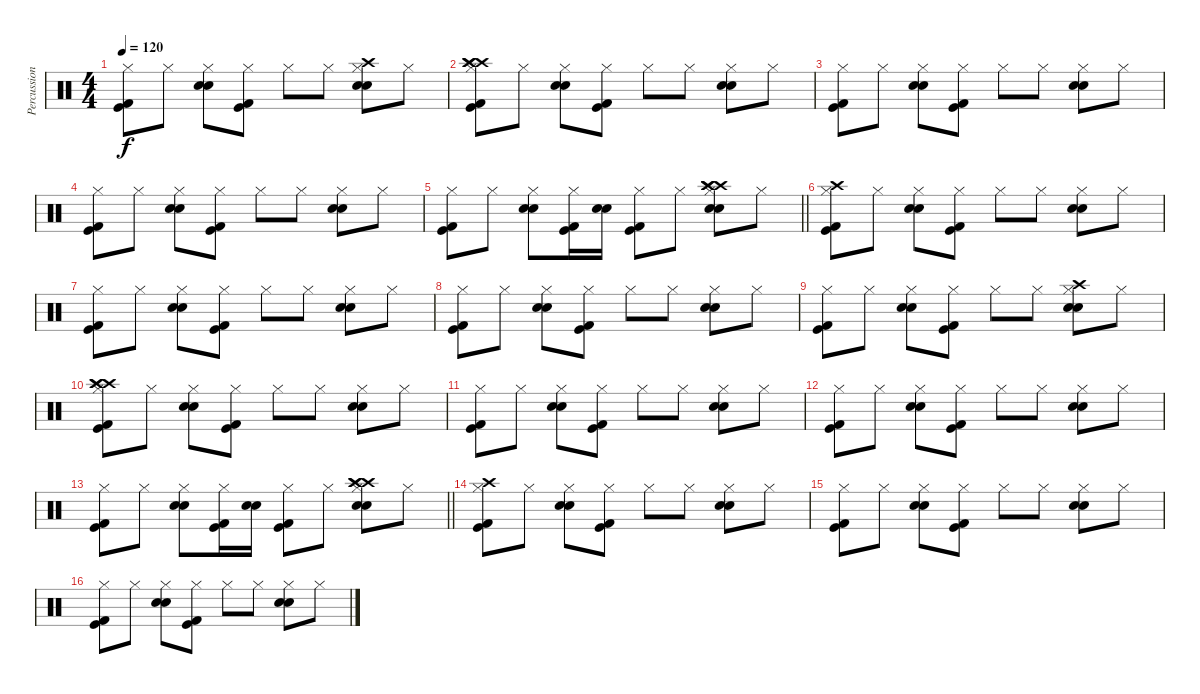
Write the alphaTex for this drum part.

\track ("Percussions" "Percussion") {instrument percussion}
\staff {score}
\articulation defaults
\ts (4 4)
\tempo 120
\clef neutral
\ks c
("Hi-Hat (closed)" "Kick (hit)" "Kick (hit) 2").8{dy f} "Hi-Hat (closed)".8 ("Hi-Hat (closed)" "Electric Snare (hit)" "Electric Snare (hit)").8 ("Hi-Hat (closed)" "Kick (hit)" "Kick (hit) 2").8 "Hi-Hat (closed)".8 "Hi-Hat (closed)".8 ("Hi-Hat (closed)" "Electric Snare (hit)" "Electric Snare (hit)" "Crash high (hit)").8 "Hi-Hat (closed)".8 |
("Crash high (hit)" "Hi-Hat (closed)" "Crash high (hit)" "Kick (hit)" "Kick (hit) 2" "Crash high (hit)").8 "Hi-Hat (closed)".8 ("Hi-Hat (closed)" "Electric Snare (hit)" "Electric Snare (hit)").8 ("Hi-Hat (closed)" "Kick (hit)" "Kick (hit) 2").8 "Hi-Hat (closed)".8 "Hi-Hat (closed)".8 ("Hi-Hat (closed)" "Electric Snare (hit)" "Electric Snare (hit)").8 "Hi-Hat (closed)".8 |
("Hi-Hat (closed)" "Kick (hit)" "Kick (hit) 2").8 "Hi-Hat (closed)".8 ("Hi-Hat (closed)" "Electric Snare (hit)" "Electric Snare (hit)").8 ("Hi-Hat (closed)" "Kick (hit)" "Kick (hit) 2").8 "Hi-Hat (closed)".8 "Hi-Hat (closed)".8 ("Hi-Hat (closed)" "Electric Snare (hit)" "Electric Snare (hit)").8 "Hi-Hat (closed)".8 |
("Hi-Hat (closed)" "Kick (hit)" "Kick (hit) 2").8 "Hi-Hat (closed)".8 ("Hi-Hat (closed)" "Electric Snare (hit)" "Electric Snare (hit)").8 ("Hi-Hat (closed)" "Kick (hit)" "Kick (hit) 2").8 "Hi-Hat (closed)".8 "Hi-Hat (closed)".8 ("Hi-Hat (closed)" "Electric Snare (hit)" "Electric Snare (hit)").8 "Hi-Hat (closed)".8 |
\barLineRight lightlight
("Hi-Hat (closed)" "Kick (hit)" "Kick (hit) 2").8 "Hi-Hat (closed)".8 ("Hi-Hat (closed)" "Electric Snare (hit)" "Electric Snare (hit)").8 ("Hi-Hat (closed)" "Kick (hit)" "Kick (hit) 2").16 ("Electric Snare (hit)" "Electric Snare (hit)").16 ("Hi-Hat (closed)" "Kick (hit)" "Kick (hit) 2").8 "Hi-Hat (closed)".8 ("Crash high (hit)" "Hi-Hat (closed)" "Electric Snare (hit)" "Electric Snare (hit)" "Crash high (hit)" "Crash high (hit)").8 "Hi-Hat (closed)".8 |
("Crash high (hit)" "Hi-Hat (closed)" "Kick (hit)" "Kick (hit) 2").8 "Hi-Hat (closed)".8 ("Hi-Hat (closed)" "Electric Snare (hit)" "Electric Snare (hit)").8 ("Hi-Hat (closed)" "Kick (hit)" "Kick (hit) 2").8 "Hi-Hat (closed)".8 "Hi-Hat (closed)".8 ("Hi-Hat (closed)" "Electric Snare (hit)" "Electric Snare (hit)").8 "Hi-Hat (closed)".8 |
("Hi-Hat (closed)" "Kick (hit)" "Kick (hit) 2").8 "Hi-Hat (closed)".8 ("Hi-Hat (closed)" "Electric Snare (hit)" "Electric Snare (hit)").8 ("Hi-Hat (closed)" "Kick (hit)" "Kick (hit) 2").8 "Hi-Hat (closed)".8 "Hi-Hat (closed)".8 ("Hi-Hat (closed)" "Electric Snare (hit)" "Electric Snare (hit)").8 "Hi-Hat (closed)".8 |
("Hi-Hat (closed)" "Kick (hit)" "Kick (hit) 2").8 "Hi-Hat (closed)".8 ("Hi-Hat (closed)" "Electric Snare (hit)" "Electric Snare (hit)").8 ("Hi-Hat (closed)" "Kick (hit)" "Kick (hit) 2").8 "Hi-Hat (closed)".8 "Hi-Hat (closed)".8 ("Hi-Hat (closed)" "Electric Snare (hit)" "Electric Snare (hit)").8 "Hi-Hat (closed)".8 |
("Hi-Hat (closed)" "Kick (hit)" "Kick (hit) 2").8 "Hi-Hat (closed)".8 ("Hi-Hat (closed)" "Electric Snare (hit)" "Electric Snare (hit)").8 ("Hi-Hat (closed)" "Kick (hit)" "Kick (hit) 2").8 "Hi-Hat (closed)".8 "Hi-Hat (closed)".8 ("Hi-Hat (closed)" "Electric Snare (hit)" "Electric Snare (hit)" "Crash high (hit)").8 "Hi-Hat (closed)".8 |
("Crash high (hit)" "Hi-Hat (closed)" "Crash high (hit)" "Kick (hit)" "Kick (hit) 2" "Crash high (hit)").8 "Hi-Hat (closed)".8 ("Hi-Hat (closed)" "Electric Snare (hit)" "Electric Snare (hit)").8 ("Hi-Hat (closed)" "Kick (hit)" "Kick (hit) 2").8 "Hi-Hat (closed)".8 "Hi-Hat (closed)".8 ("Hi-Hat (closed)" "Electric Snare (hit)" "Electric Snare (hit)").8 "Hi-Hat (closed)".8 |
("Hi-Hat (closed)" "Kick (hit)" "Kick (hit) 2").8 "Hi-Hat (closed)".8 ("Hi-Hat (closed)" "Electric Snare (hit)" "Electric Snare (hit)").8 ("Hi-Hat (closed)" "Kick (hit)" "Kick (hit) 2").8 "Hi-Hat (closed)".8 "Hi-Hat (closed)".8 ("Hi-Hat (closed)" "Electric Snare (hit)" "Electric Snare (hit)").8 "Hi-Hat (closed)".8 |
("Hi-Hat (closed)" "Kick (hit)" "Kick (hit) 2").8 "Hi-Hat (closed)".8 ("Hi-Hat (closed)" "Electric Snare (hit)" "Electric Snare (hit)").8 ("Hi-Hat (closed)" "Kick (hit)" "Kick (hit) 2").8 "Hi-Hat (closed)".8 "Hi-Hat (closed)".8 ("Hi-Hat (closed)" "Electric Snare (hit)" "Electric Snare (hit)").8 "Hi-Hat (closed)".8 |
\barLineRight lightlight
("Hi-Hat (closed)" "Kick (hit)" "Kick (hit) 2").8 "Hi-Hat (closed)".8 ("Hi-Hat (closed)" "Electric Snare (hit)" "Electric Snare (hit)").8 ("Hi-Hat (closed)" "Kick (hit)" "Kick (hit) 2").16 ("Electric Snare (hit)" "Electric Snare (hit)").16 ("Hi-Hat (closed)" "Kick (hit)" "Kick (hit) 2").8 "Hi-Hat (closed)".8 ("Crash high (hit)" "Hi-Hat (closed)" "Electric Snare (hit)" "Electric Snare (hit)" "Crash high (hit)" "Crash high (hit)").8 "Hi-Hat (closed)".8 |
("Crash high (hit)" "Hi-Hat (closed)" "Kick (hit)" "Kick (hit) 2").8 "Hi-Hat (closed)".8 ("Hi-Hat (closed)" "Electric Snare (hit)" "Electric Snare (hit)").8 ("Hi-Hat (closed)" "Kick (hit)" "Kick (hit) 2").8 "Hi-Hat (closed)".8 "Hi-Hat (closed)".8 ("Hi-Hat (closed)" "Electric Snare (hit)" "Electric Snare (hit)").8 "Hi-Hat (closed)".8 |
("Hi-Hat (closed)" "Kick (hit)" "Kick (hit) 2").8 "Hi-Hat (closed)".8 ("Hi-Hat (closed)" "Electric Snare (hit)" "Electric Snare (hit)").8 ("Hi-Hat (closed)" "Kick (hit)" "Kick (hit) 2").8 "Hi-Hat (closed)".8 "Hi-Hat (closed)".8 ("Hi-Hat (closed)" "Electric Snare (hit)" "Electric Snare (hit)").8 "Hi-Hat (closed)".8 |
("Hi-Hat (closed)" "Kick (hit)" "Kick (hit) 2").8 "Hi-Hat (closed)".8 ("Hi-Hat (closed)" "Electric Snare (hit)" "Electric Snare (hit)").8 ("Hi-Hat (closed)" "Kick (hit)" "Kick (hit) 2").8 "Hi-Hat (closed)".8 "Hi-Hat (closed)".8 ("Hi-Hat (closed)" "Electric Snare (hit)" "Electric Snare (hit)").8 "Hi-Hat (closed)".8
